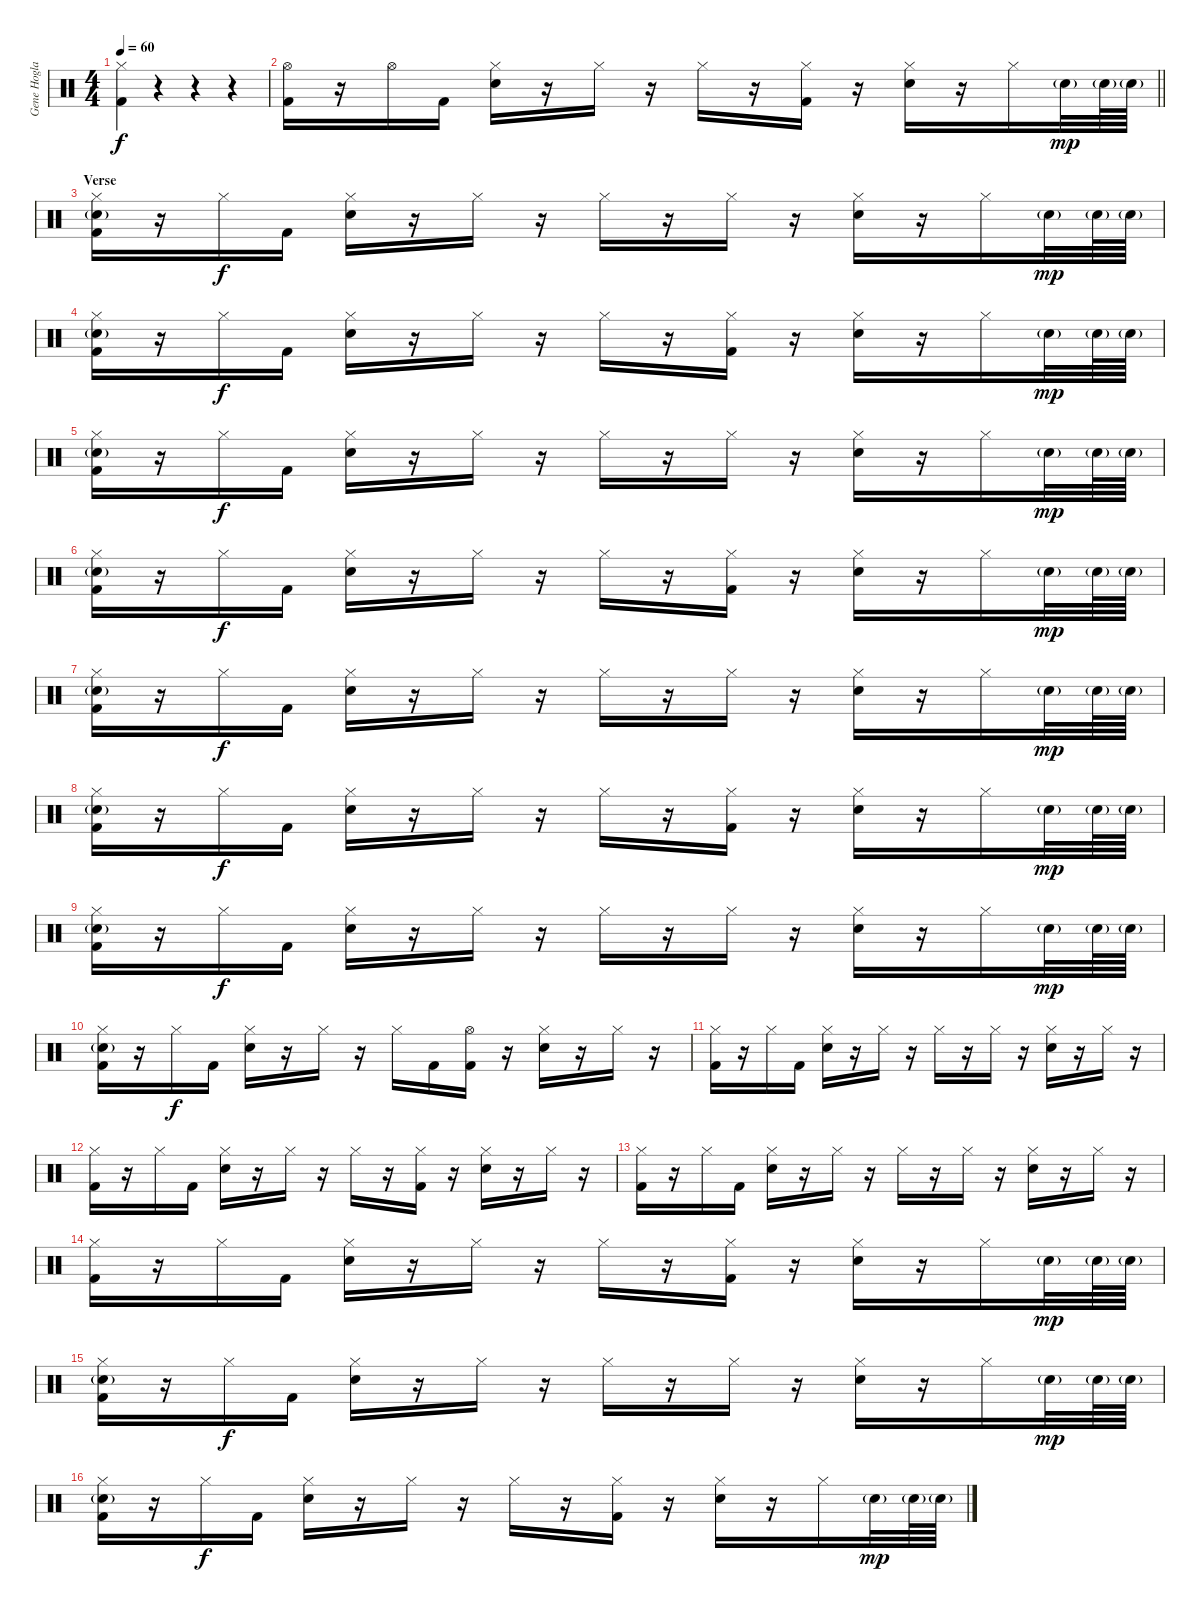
\track ("Gene Hoglan" "Gene Hogla") {instrument percussion}
\staff {score}
\articulation defaults
\ts (4 4)
\tempo 60
\clef neutral
\ks c
("Hi-Hat (closed)" "Kick (hit) 2").4{dy f} r.4 r.4 r.4 |
\barLineRight lightlight
("Hi-Hat (open)" "Kick (hit) 2").16 r.16 "Hi-Hat (open)".16 "Kick (hit) 2".16 ("Hi-Hat (closed)" "Snare (hit) 2").16 r.16 "Hi-Hat (closed)".16 r.16 "Hi-Hat (closed)".16 r.16 ("Hi-Hat (closed)" "Kick (hit) 2").16 r.16 ("Hi-Hat (closed)" "Snare (hit) 2").16 r.16 "Hi-Hat (closed)".16 "Snare (hit) 2"{g}.32{dy mp} "Snare (hit) 2"{g}.64 "Snare (hit) 2"{g}.64 |
\section ("" "Verse")
("Hi-Hat (closed)" "Snare (hit) 2"{g} "Kick (hit) 2").16 r.16 "Hi-Hat (closed)".16{dy f} "Kick (hit) 2".16 ("Hi-Hat (closed)" "Snare (hit) 2").16 r.16 "Hi-Hat (closed)".16 r.16 "Hi-Hat (closed)".16 r.16 "Hi-Hat (closed)".16 r.16 ("Hi-Hat (closed)" "Snare (hit) 2").16 r.16 "Hi-Hat (closed)".16 "Snare (hit) 2"{g}.32{dy mp} "Snare (hit) 2"{g}.64 "Snare (hit) 2"{g}.64 |
("Hi-Hat (closed)" "Snare (hit) 2"{g} "Kick (hit) 2").16 r.16 "Hi-Hat (closed)".16{dy f} "Kick (hit) 2".16 ("Hi-Hat (closed)" "Snare (hit) 2").16 r.16 "Hi-Hat (closed)".16 r.16 "Hi-Hat (closed)".16 r.16 ("Hi-Hat (closed)" "Kick (hit) 2").16 r.16 ("Hi-Hat (closed)" "Snare (hit) 2").16 r.16 "Hi-Hat (closed)".16 "Snare (hit) 2"{g}.32{dy mp} "Snare (hit) 2"{g}.64 "Snare (hit) 2"{g}.64 |
("Hi-Hat (closed)" "Snare (hit) 2"{g} "Kick (hit) 2").16 r.16 "Hi-Hat (closed)".16{dy f} "Kick (hit) 2".16 ("Hi-Hat (closed)" "Snare (hit) 2").16 r.16 "Hi-Hat (closed)".16 r.16 "Hi-Hat (closed)".16 r.16 "Hi-Hat (closed)".16 r.16 ("Hi-Hat (closed)" "Snare (hit) 2").16 r.16 "Hi-Hat (closed)".16 "Snare (hit) 2"{g}.32{dy mp} "Snare (hit) 2"{g}.64 "Snare (hit) 2"{g}.64 |
("Hi-Hat (closed)" "Snare (hit) 2"{g} "Kick (hit) 2").16 r.16 "Hi-Hat (closed)".16{dy f} "Kick (hit) 2".16 ("Hi-Hat (closed)" "Snare (hit) 2").16 r.16 "Hi-Hat (closed)".16 r.16 "Hi-Hat (closed)".16 r.16 ("Hi-Hat (closed)" "Kick (hit) 2").16 r.16 ("Hi-Hat (closed)" "Snare (hit) 2").16 r.16 "Hi-Hat (closed)".16 "Snare (hit) 2"{g}.32{dy mp} "Snare (hit) 2"{g}.64 "Snare (hit) 2"{g}.64 |
("Hi-Hat (closed)" "Snare (hit) 2"{g} "Kick (hit) 2").16 r.16 "Hi-Hat (closed)".16{dy f} "Kick (hit) 2".16 ("Hi-Hat (closed)" "Snare (hit) 2").16 r.16 "Hi-Hat (closed)".16 r.16 "Hi-Hat (closed)".16 r.16 "Hi-Hat (closed)".16 r.16 ("Hi-Hat (closed)" "Snare (hit) 2").16 r.16 "Hi-Hat (closed)".16 "Snare (hit) 2"{g}.32{dy mp} "Snare (hit) 2"{g}.64 "Snare (hit) 2"{g}.64 |
("Hi-Hat (closed)" "Snare (hit) 2"{g} "Kick (hit) 2").16 r.16 "Hi-Hat (closed)".16{dy f} "Kick (hit) 2".16 ("Hi-Hat (closed)" "Snare (hit) 2").16 r.16 "Hi-Hat (closed)".16 r.16 "Hi-Hat (closed)".16 r.16 ("Hi-Hat (closed)" "Kick (hit) 2").16 r.16 ("Hi-Hat (closed)" "Snare (hit) 2").16 r.16 "Hi-Hat (closed)".16 "Snare (hit) 2"{g}.32{dy mp} "Snare (hit) 2"{g}.64 "Snare (hit) 2"{g}.64 |
("Hi-Hat (closed)" "Snare (hit) 2"{g} "Kick (hit) 2").16 r.16 "Hi-Hat (closed)".16{dy f} "Kick (hit) 2".16 ("Hi-Hat (closed)" "Snare (hit) 2").16 r.16 "Hi-Hat (closed)".16 r.16 "Hi-Hat (closed)".16 r.16 "Hi-Hat (closed)".16 r.16 ("Hi-Hat (closed)" "Snare (hit) 2").16 r.16 "Hi-Hat (closed)".16 "Snare (hit) 2"{g}.32{dy mp} "Snare (hit) 2"{g}.64 "Snare (hit) 2"{g}.64 |
("Hi-Hat (closed)" "Snare (hit) 2"{g} "Kick (hit) 2").16 r.16 "Hi-Hat (closed)".16{dy f} "Kick (hit) 2".16 ("Hi-Hat (closed)" "Snare (hit) 2").16 r.16 "Hi-Hat (closed)".16 r.16 "Hi-Hat (closed)".16 "Kick (hit) 2".16 ("Hi-Hat (open)" "Kick (hit) 2").16 r.16 ("Hi-Hat (closed)" "Snare (hit) 2").16 r.16 "Hi-Hat (closed)".16 r.16 |
("Hi-Hat (closed)" "Kick (hit) 2").16 r.16 "Hi-Hat (closed)".16 "Kick (hit) 2".16 ("Hi-Hat (closed)" "Snare (hit) 2").16 r.16 "Hi-Hat (closed)".16 r.16 "Hi-Hat (closed)".16 r.16 "Hi-Hat (closed)".16 r.16 ("Hi-Hat (closed)" "Snare (hit) 2").16 r.16 "Hi-Hat (closed)".16 r.16 |
("Hi-Hat (closed)" "Kick (hit) 2").16 r.16 "Hi-Hat (closed)".16 "Kick (hit) 2".16 ("Hi-Hat (closed)" "Snare (hit) 2").16 r.16 "Hi-Hat (closed)".16 r.16 "Hi-Hat (closed)".16 r.16 ("Hi-Hat (closed)" "Kick (hit) 2").16 r.16 ("Hi-Hat (closed)" "Snare (hit) 2").16 r.16 "Hi-Hat (closed)".16 r.16 |
("Hi-Hat (closed)" "Kick (hit) 2").16 r.16 "Hi-Hat (closed)".16 "Kick (hit) 2".16 ("Hi-Hat (closed)" "Snare (hit) 2").16 r.16 "Hi-Hat (closed)".16 r.16 "Hi-Hat (closed)".16 r.16 "Hi-Hat (closed)".16 r.16 ("Hi-Hat (closed)" "Snare (hit) 2").16 r.16 "Hi-Hat (closed)".16 r.16 |
("Hi-Hat (closed)" "Kick (hit) 2").16 r.16 "Hi-Hat (closed)".16 "Kick (hit) 2".16 ("Hi-Hat (closed)" "Snare (hit) 2").16 r.16 "Hi-Hat (closed)".16 r.16 "Hi-Hat (closed)".16 r.16 ("Hi-Hat (closed)" "Kick (hit) 2").16 r.16 ("Hi-Hat (closed)" "Snare (hit) 2").16 r.16 "Hi-Hat (closed)".16 "Snare (hit) 2"{g}.32{dy mp} "Snare (hit) 2"{g}.64 "Snare (hit) 2"{g}.64 |
("Hi-Hat (closed)" "Snare (hit) 2"{g} "Kick (hit) 2").16 r.16 "Hi-Hat (closed)".16{dy f} "Kick (hit) 2".16 ("Hi-Hat (closed)" "Snare (hit) 2").16 r.16 "Hi-Hat (closed)".16 r.16 "Hi-Hat (closed)".16 r.16 "Hi-Hat (closed)".16 r.16 ("Hi-Hat (closed)" "Snare (hit) 2").16 r.16 "Hi-Hat (closed)".16 "Snare (hit) 2"{g}.32{dy mp} "Snare (hit) 2"{g}.64 "Snare (hit) 2"{g}.64 |
("Hi-Hat (closed)" "Snare (hit) 2"{g} "Kick (hit) 2").16 r.16 "Hi-Hat (closed)".16{dy f} "Kick (hit) 2".16 ("Hi-Hat (closed)" "Snare (hit) 2").16 r.16 "Hi-Hat (closed)".16 r.16 "Hi-Hat (closed)".16 r.16 ("Hi-Hat (closed)" "Kick (hit) 2").16 r.16 ("Hi-Hat (closed)" "Snare (hit) 2").16 r.16 "Hi-Hat (closed)".16 "Snare (hit) 2"{g}.32{dy mp} "Snare (hit) 2"{g}.64 "Snare (hit) 2"{g}.64
